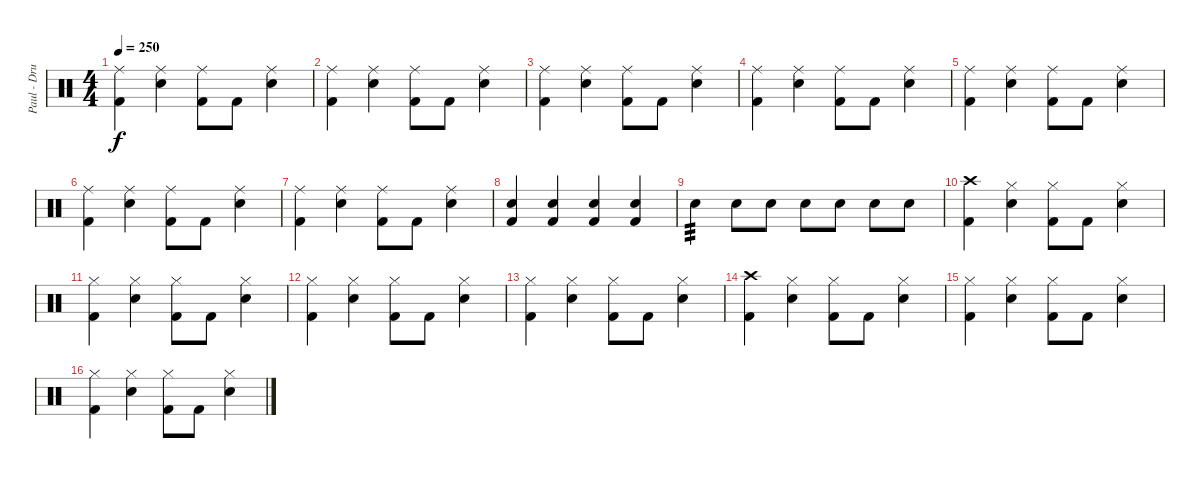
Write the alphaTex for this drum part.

\track ("Paul - Drums" "Paul - Dru") {instrument percussion}
\staff {score}
\articulation defaults
\ts (4 4)
\tempo 250
\clef neutral
\ks c
("Ride (middle)" "Kick (hit) 2").4{dy f} ("Ride (middle)" "Electric Snare (hit)").4 ("Ride (middle)" "Kick (hit) 2").8 "Kick (hit) 2".8 ("Ride (middle)" "Electric Snare (hit)").4 |
("Ride (middle)" "Kick (hit) 2").4 ("Ride (middle)" "Electric Snare (hit)").4 ("Ride (middle)" "Kick (hit) 2").8 "Kick (hit) 2".8 ("Ride (middle)" "Electric Snare (hit)").4 |
("Ride (middle)" "Kick (hit) 2").4 ("Ride (middle)" "Electric Snare (hit)").4 ("Ride (middle)" "Kick (hit) 2").8 "Kick (hit) 2".8 ("Ride (middle)" "Electric Snare (hit)").4 |
("Ride (middle)" "Kick (hit) 2").4 ("Ride (middle)" "Electric Snare (hit)").4 ("Ride (middle)" "Kick (hit) 2").8 "Kick (hit) 2".8 ("Ride (middle)" "Electric Snare (hit)").4 |
("Ride (middle)" "Kick (hit) 2").4 ("Ride (middle)" "Electric Snare (hit)").4 ("Ride (middle)" "Kick (hit) 2").8 "Kick (hit) 2".8 ("Ride (middle)" "Electric Snare (hit)").4 |
("Ride (middle)" "Kick (hit) 2").4 ("Ride (middle)" "Electric Snare (hit)").4 ("Ride (middle)" "Kick (hit) 2").8 "Kick (hit) 2".8 ("Ride (middle)" "Electric Snare (hit)").4 |
("Ride (middle)" "Kick (hit) 2").4 ("Ride (middle)" "Electric Snare (hit)").4 ("Ride (middle)" "Kick (hit) 2").8 "Kick (hit) 2".8 ("Ride (middle)" "Electric Snare (hit)").4 |
("Electric Snare (hit)" "Kick (hit) 2").4 ("Electric Snare (hit)" "Kick (hit) 2").4 ("Electric Snare (hit)" "Kick (hit) 2").4 ("Electric Snare (hit)" "Kick (hit) 2").4 |
"Electric Snare (hit)".4{tp 3} "Electric Snare (hit)".8 "Electric Snare (hit)".8 "Electric Snare (hit)".8 "Electric Snare (hit)".8 "Electric Snare (hit)".8 "Electric Snare (hit)".8 |
("Crash high (hit)" "Kick (hit) 2").4 ("Hi-Hat (closed)" "Electric Snare (hit)").4 ("Hi-Hat (closed)" "Kick (hit) 2").8 "Kick (hit) 2".8 ("Hi-Hat (closed)" "Electric Snare (hit)").4 |
("Hi-Hat (closed)" "Kick (hit) 2").4 ("Hi-Hat (closed)" "Electric Snare (hit)").4 ("Hi-Hat (closed)" "Kick (hit) 2").8 "Kick (hit) 2".8 ("Hi-Hat (closed)" "Electric Snare (hit)").4 |
("Hi-Hat (closed)" "Kick (hit) 2").4 ("Hi-Hat (closed)" "Electric Snare (hit)").4 ("Hi-Hat (closed)" "Kick (hit) 2").8 "Kick (hit) 2".8 ("Hi-Hat (closed)" "Electric Snare (hit)").4 |
("Hi-Hat (closed)" "Kick (hit) 2").4 ("Hi-Hat (closed)" "Electric Snare (hit)").4 ("Hi-Hat (closed)" "Kick (hit) 2").8 "Kick (hit) 2".8 ("Hi-Hat (closed)" "Electric Snare (hit)").4 |
("Crash high (hit)" "Kick (hit) 2").4 ("Hi-Hat (closed)" "Electric Snare (hit)").4 ("Hi-Hat (closed)" "Kick (hit) 2").8 "Kick (hit) 2".8 ("Hi-Hat (closed)" "Electric Snare (hit)").4 |
("Hi-Hat (closed)" "Kick (hit) 2").4 ("Hi-Hat (closed)" "Electric Snare (hit)").4 ("Hi-Hat (closed)" "Kick (hit) 2").8 "Kick (hit) 2".8 ("Hi-Hat (closed)" "Electric Snare (hit)").4 |
("Hi-Hat (closed)" "Kick (hit) 2").4 ("Hi-Hat (closed)" "Electric Snare (hit)").4 ("Hi-Hat (closed)" "Kick (hit) 2").8 "Kick (hit) 2".8 ("Hi-Hat (closed)" "Electric Snare (hit)").4
